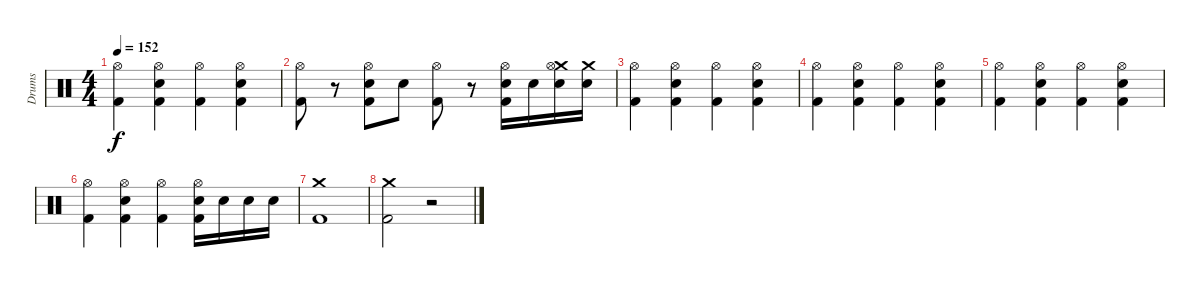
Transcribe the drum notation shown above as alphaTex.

\track ("Drums" "Drums") {instrument percussion}
\staff {score}
\articulation defaults
\ts (4 4)
\tempo 152
\clef neutral
\ks c
("Hi-Hat (open)" "Kick (hit) 2").4{dy f} ("Snare (hit) 2" "Hi-Hat (open)" "Kick (hit) 2").4 ("Hi-Hat (open)" "Kick (hit) 2").4 ("Snare (hit) 2" "Hi-Hat (open)" "Kick (hit) 2").4 |
("Hi-Hat (open)" "Kick (hit) 2").8 r.8 ("Snare (hit) 2" "Hi-Hat (open)" "Kick (hit) 2").8 "Snare (hit) 2".8 ("Hi-Hat (open)" "Kick (hit) 2").8 r.8 ("Snare (hit) 2" "Hi-Hat (open)" "Kick (hit) 2").16 "Snare (hit) 2".16 ("Crash medium (hit)" "Snare (hit) 2" "Hi-Hat (open)").16 ("Crash medium (hit)" "Snare (hit) 2").16 |
("Hi-Hat (open)" "Kick (hit) 2").4 ("Snare (hit) 2" "Hi-Hat (open)" "Kick (hit) 2").4 ("Hi-Hat (open)" "Kick (hit) 2").4 ("Snare (hit) 2" "Hi-Hat (open)" "Kick (hit) 2").4 |
("Hi-Hat (open)" "Kick (hit) 2").4 ("Snare (hit) 2" "Hi-Hat (open)" "Kick (hit) 2").4 ("Hi-Hat (open)" "Kick (hit) 2").4 ("Snare (hit) 2" "Hi-Hat (open)" "Kick (hit) 2").4 |
("Hi-Hat (open)" "Kick (hit) 2").4 ("Snare (hit) 2" "Hi-Hat (open)" "Kick (hit) 2").4 ("Hi-Hat (open)" "Kick (hit) 2").4 ("Snare (hit) 2" "Hi-Hat (open)" "Kick (hit) 2").4 |
("Hi-Hat (open)" "Kick (hit) 2").4 ("Snare (hit) 2" "Hi-Hat (open)" "Kick (hit) 2").4 ("Hi-Hat (open)" "Kick (hit) 2").4 ("Snare (hit) 2" "Hi-Hat (open)" "Kick (hit) 2").16 "Snare (hit) 2".16 "Snare (hit) 2".16 "Snare (hit) 2".16 |
("Crash medium (hit)" "Kick (hit) 2").1 |
("Crash medium (hit)" "Kick (hit) 2").2 r.2
